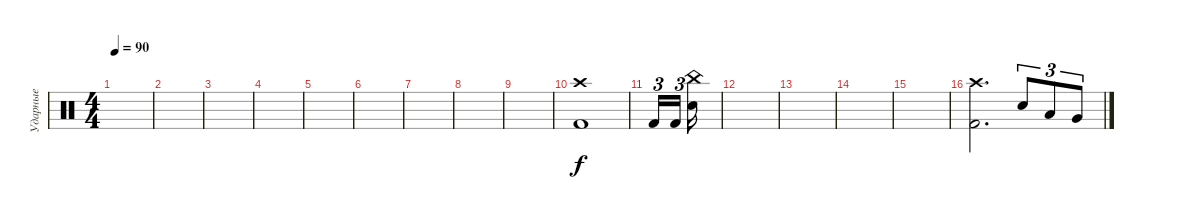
\track ("Ударные" "Ударные") {instrument percussion}
\staff {score}
\articulation defaults
\ts (4 4)
\tempo 90
\clef neutral
\ks c
|
|
|
|
|
|
|
|
|
("Kick (hit) 2" "Crash high (hit)").1 |
"Kick (hit) 2".16{tu (3 2)} "Kick (hit) 2".16{tu (3 2) beam splitsecondary} ("Snare (hit) 2" "China (hit)").16 |
|
|
|
|
("Kick (hit) 2" "Crash high (hit)").2{d} "Snare (hit) 2".8{tu (3 2)} "Low Tom (hit)".8{tu (3 2)} "Very Low Tom (hit)".8{tu (3 2)}
